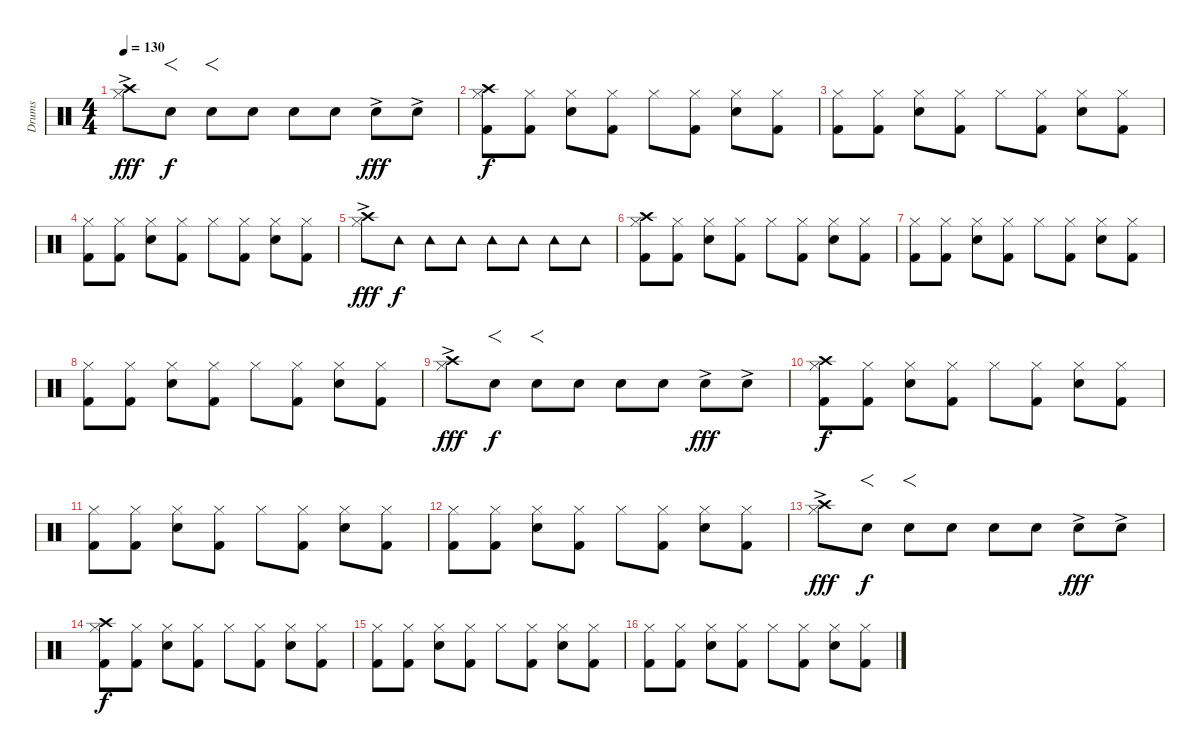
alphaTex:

\track ("Drums" "Drums") {instrument percussion}
\staff {score}
\articulation defaults
\ts (4 4)
\tempo 130
\clef neutral
\ks c
("Crash high (hit)"{ac} "Hi-Hat (closed)").8{dy fff} "Snare (hit) 2".8{f dy f} "Snare (hit) 2".8{f} "Snare (hit) 2".8 "Snare (hit) 2".8 "Snare (hit) 2".8 "Snare (hit) 2"{ac}.8{dy fff} "Snare (hit) 2"{ac}.8 |
("Crash high (hit)" "Hi-Hat (closed)" "Kick (hit) 2").8{dy f} ("Hi-Hat (closed)" "Kick (hit) 2").8 ("Hi-Hat (closed)" "Snare (hit) 2").8 ("Hi-Hat (closed)" "Kick (hit) 2").8 "Hi-Hat (closed)".8 ("Hi-Hat (closed)" "Kick (hit) 2").8 ("Hi-Hat (closed)" "Snare (hit) 2").8 ("Hi-Hat (closed)" "Kick (hit) 2").8 |
("Hi-Hat (closed)" "Kick (hit) 2").8 ("Hi-Hat (closed)" "Kick (hit) 2").8 ("Hi-Hat (closed)" "Snare (hit) 2").8 ("Hi-Hat (closed)" "Kick (hit) 2").8 "Hi-Hat (closed)".8 ("Hi-Hat (closed)" "Kick (hit) 2").8 ("Hi-Hat (closed)" "Snare (hit) 2").8 ("Hi-Hat (closed)" "Kick (hit) 2").8 |
("Hi-Hat (closed)" "Kick (hit) 2").8 ("Hi-Hat (closed)" "Kick (hit) 2").8 ("Hi-Hat (closed)" "Snare (hit) 2").8 ("Hi-Hat (closed)" "Kick (hit) 2").8 "Hi-Hat (closed)".8 ("Hi-Hat (closed)" "Kick (hit) 2").8 ("Hi-Hat (closed)" "Snare (hit) 2").8 ("Hi-Hat (closed)" "Kick (hit) 2").8 |
("Crash high (hit)"{ac} "Hi-Hat (closed)").8{dy fff} "Tambourine (hit)".8{dy f} "Tambourine (hit)".8 "Tambourine (hit)".8 "Tambourine (hit)".8 "Tambourine (hit)".8 "Tambourine (hit)".8 "Tambourine (hit)".8 |
("Crash high (hit)" "Hi-Hat (closed)" "Kick (hit) 2").8 ("Hi-Hat (closed)" "Kick (hit) 2").8 ("Hi-Hat (closed)" "Snare (hit) 2").8 ("Hi-Hat (closed)" "Kick (hit) 2").8 "Hi-Hat (closed)".8 ("Hi-Hat (closed)" "Kick (hit) 2").8 ("Hi-Hat (closed)" "Snare (hit) 2").8 ("Hi-Hat (closed)" "Kick (hit) 2").8 |
("Hi-Hat (closed)" "Kick (hit) 2").8 ("Hi-Hat (closed)" "Kick (hit) 2").8 ("Hi-Hat (closed)" "Snare (hit) 2").8 ("Hi-Hat (closed)" "Kick (hit) 2").8 "Hi-Hat (closed)".8 ("Hi-Hat (closed)" "Kick (hit) 2").8 ("Hi-Hat (closed)" "Snare (hit) 2").8 ("Hi-Hat (closed)" "Kick (hit) 2").8 |
("Hi-Hat (closed)" "Kick (hit) 2").8 ("Hi-Hat (closed)" "Kick (hit) 2").8 ("Hi-Hat (closed)" "Snare (hit) 2").8 ("Hi-Hat (closed)" "Kick (hit) 2").8 "Hi-Hat (closed)".8 ("Hi-Hat (closed)" "Kick (hit) 2").8 ("Hi-Hat (closed)" "Snare (hit) 2").8 ("Hi-Hat (closed)" "Kick (hit) 2").8 |
("Crash high (hit)"{ac} "Hi-Hat (closed)").8{dy fff} "Snare (hit) 2".8{f dy f} "Snare (hit) 2".8{f} "Snare (hit) 2".8 "Snare (hit) 2".8 "Snare (hit) 2".8 "Snare (hit) 2"{ac}.8{dy fff} "Snare (hit) 2"{ac}.8 |
("Crash high (hit)" "Hi-Hat (closed)" "Kick (hit) 2").8{dy f} ("Hi-Hat (closed)" "Kick (hit) 2").8 ("Hi-Hat (closed)" "Snare (hit) 2").8 ("Hi-Hat (closed)" "Kick (hit) 2").8 "Hi-Hat (closed)".8 ("Hi-Hat (closed)" "Kick (hit) 2").8 ("Hi-Hat (closed)" "Snare (hit) 2").8 ("Hi-Hat (closed)" "Kick (hit) 2").8 |
("Hi-Hat (closed)" "Kick (hit) 2").8 ("Hi-Hat (closed)" "Kick (hit) 2").8 ("Hi-Hat (closed)" "Snare (hit) 2").8 ("Hi-Hat (closed)" "Kick (hit) 2").8 "Hi-Hat (closed)".8 ("Hi-Hat (closed)" "Kick (hit) 2").8 ("Hi-Hat (closed)" "Snare (hit) 2").8 ("Hi-Hat (closed)" "Kick (hit) 2").8 |
("Hi-Hat (closed)" "Kick (hit) 2").8 ("Hi-Hat (closed)" "Kick (hit) 2").8 ("Hi-Hat (closed)" "Snare (hit) 2").8 ("Hi-Hat (closed)" "Kick (hit) 2").8 "Hi-Hat (closed)".8 ("Hi-Hat (closed)" "Kick (hit) 2").8 ("Hi-Hat (closed)" "Snare (hit) 2").8 ("Hi-Hat (closed)" "Kick (hit) 2").8 |
("Crash high (hit)"{ac} "Hi-Hat (closed)").8{dy fff} "Snare (hit) 2".8{f dy f} "Snare (hit) 2".8{f} "Snare (hit) 2".8 "Snare (hit) 2".8 "Snare (hit) 2".8 "Snare (hit) 2"{ac}.8{dy fff} "Snare (hit) 2"{ac}.8 |
("Crash high (hit)" "Hi-Hat (closed)" "Kick (hit) 2").8{dy f} ("Hi-Hat (closed)" "Kick (hit) 2").8 ("Hi-Hat (closed)" "Snare (hit) 2").8 ("Hi-Hat (closed)" "Kick (hit) 2").8 "Hi-Hat (closed)".8 ("Hi-Hat (closed)" "Kick (hit) 2").8 ("Hi-Hat (closed)" "Snare (hit) 2").8 ("Hi-Hat (closed)" "Kick (hit) 2").8 |
("Hi-Hat (closed)" "Kick (hit) 2").8 ("Hi-Hat (closed)" "Kick (hit) 2").8 ("Hi-Hat (closed)" "Snare (hit) 2").8 ("Hi-Hat (closed)" "Kick (hit) 2").8 "Hi-Hat (closed)".8 ("Hi-Hat (closed)" "Kick (hit) 2").8 ("Hi-Hat (closed)" "Snare (hit) 2").8 ("Hi-Hat (closed)" "Kick (hit) 2").8 |
("Hi-Hat (closed)" "Kick (hit) 2").8 ("Hi-Hat (closed)" "Kick (hit) 2").8 ("Hi-Hat (closed)" "Snare (hit) 2").8 ("Hi-Hat (closed)" "Kick (hit) 2").8 "Hi-Hat (closed)".8 ("Hi-Hat (closed)" "Kick (hit) 2").8 ("Hi-Hat (closed)" "Snare (hit) 2").8 ("Hi-Hat (closed)" "Kick (hit) 2").8
